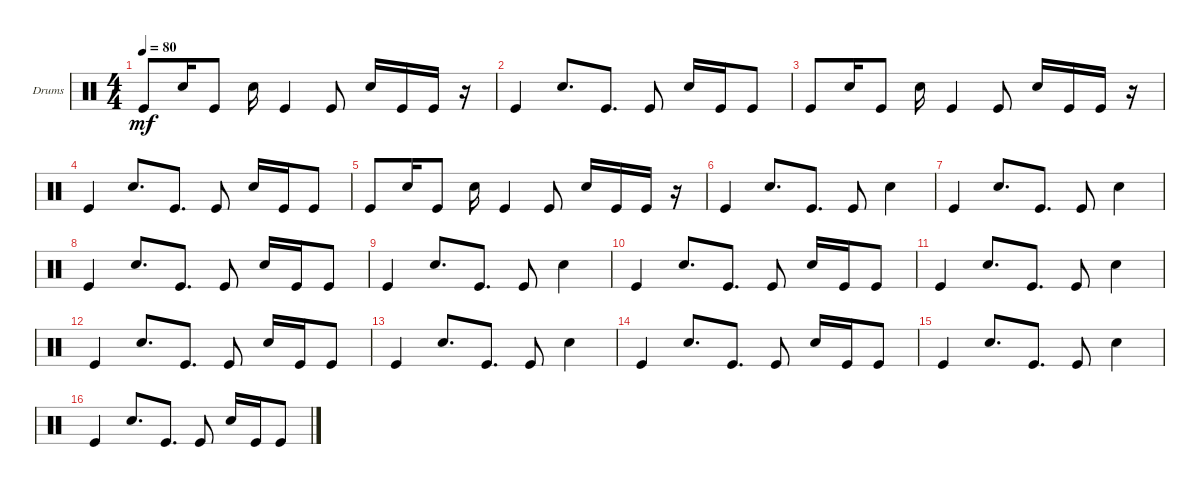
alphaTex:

\defaultSystemsLayout 4
\bracketExtendMode groupsimilarinstruments
\firstSystemTrackNameOrientation horizontal
\otherSystemsTrackNameOrientation horizontal
\track ("Drumkit" "Drums") {instrument percussion}
\staff {score}
\articulation defaults
\ts (4 4)
\tempo 80
\clef neutral
\ks c "Kick (hit)".8{dy mf} "Snare (hit) 2".16 "Kick (hit)".8 "Snare (hit) 2".16 "Kick (hit)".4 "Kick (hit)".8 "Snare (hit) 2".16 "Kick (hit)".16 "Kick (hit)".16
r.16 |
"Kick (hit)".4 "Snare (hit) 2".8{d} "Kick (hit)".8{d} "Kick (hit)".8 "Snare (hit) 2".16 "Kick (hit)".16 "Kick (hit)".8 |
"Kick (hit)".8 "Snare (hit) 2".16 "Kick (hit)".8 "Snare (hit) 2".16 "Kick (hit)".4 "Kick (hit)".8 "Snare (hit) 2".16 "Kick (hit)".16 "Kick (hit)".16 r.16 |
"Kick (hit)".4 "Snare (hit) 2".8{d} "Kick (hit)".8{d} "Kick (hit)".8 "Snare (hit) 2".16 "Kick (hit)".16 "Kick (hit)".8 |
"Kick (hit)".8 "Snare (hit) 2".16 "Kick (hit)".8 "Snare (hit) 2".16 "Kick (hit)".4 "Kick (hit)".8 "Snare (hit) 2".16 "Kick (hit)".16 "Kick (hit)".16 r.16 |
"Kick (hit)".4 "Snare (hit) 2".8{d} "Kick (hit)".8{d} "Kick (hit)".8 "Snare (hit) 2".4 |
"Kick (hit)".4 "Snare (hit) 2".8{d} "Kick (hit)".8{d} "Kick (hit)".8 "Snare (hit) 2".4 |
"Kick (hit)".4 "Snare (hit) 2".8{d} "Kick (hit)".8{d} "Kick (hit)".8 "Snare (hit) 2".16 "Kick (hit)".16 "Kick (hit)".8 |
"Kick (hit)".4 "Snare (hit) 2".8{d} "Kick (hit)".8{d} "Kick (hit)".8 "Snare (hit) 2".4 |
"Kick (hit)".4 "Snare (hit) 2".8{d} "Kick (hit)".8{d} "Kick (hit)".8 "Snare (hit) 2".16 "Kick (hit)".16 "Kick (hit)".8 |
"Kick (hit)".4 "Snare (hit) 2".8{d} "Kick (hit)".8{d} "Kick (hit)".8 "Snare (hit) 2".4 |
"Kick (hit)".4 "Snare (hit) 2".8{d} "Kick (hit)".8{d} "Kick (hit)".8 "Snare (hit) 2".16 "Kick (hit)".16 "Kick (hit)".8 |
"Kick (hit)".4 "Snare (hit) 2".8{d} "Kick (hit)".8{d} "Kick (hit)".8 "Snare (hit) 2".4 |
"Kick (hit)".4 "Snare (hit) 2".8{d} "Kick (hit)".8{d} "Kick (hit)".8 "Snare (hit) 2".16 "Kick (hit)".16 "Kick (hit)".8 |
"Kick (hit)".4 "Snare (hit) 2".8{d} "Kick (hit)".8{d} "Kick (hit)".8 "Snare (hit) 2".4 |
"Kick (hit)".4 "Snare (hit) 2".8{d} "Kick (hit)".8{d} "Kick (hit)".8 "Snare (hit) 2".16 "Kick (hit)".16 "Kick (hit)".8
